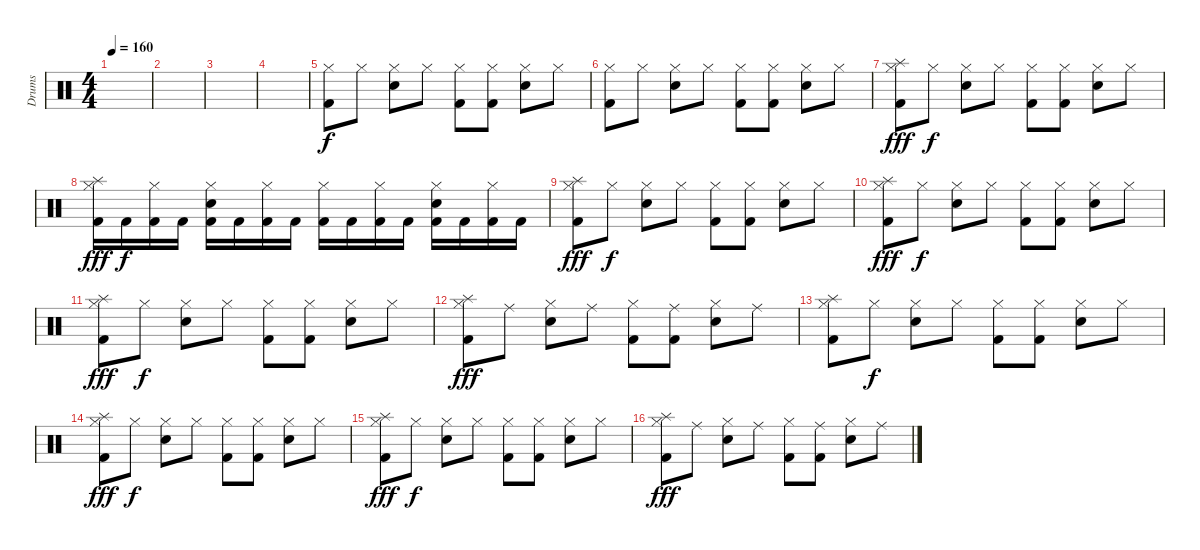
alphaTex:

\track ("Drums" "Drums") {instrument percussion}
\staff {score}
\articulation defaults
\ts (4 4)
\tempo 160
\clef neutral
\ks c
|
|
|
|
("Hi-Hat (closed)" "Kick (hit) 2").8 "Hi-Hat (closed)".8 ("Hi-Hat (closed)" "Snare (hit) 2").8 "Hi-Hat (closed)".8 ("Hi-Hat (closed)" "Kick (hit) 2").8 ("Hi-Hat (closed)" "Kick (hit) 2").8 ("Hi-Hat (closed)" "Snare (hit) 2").8 "Hi-Hat (closed)".8 |
("Hi-Hat (closed)" "Kick (hit) 2").8 "Hi-Hat (closed)".8 ("Hi-Hat (closed)" "Snare (hit) 2").8 "Hi-Hat (closed)".8 ("Hi-Hat (closed)" "Kick (hit) 2").8 ("Hi-Hat (closed)" "Kick (hit) 2").8 ("Hi-Hat (closed)" "Snare (hit) 2").8 "Hi-Hat (closed)".8 |
("Splash (hit)" "Hi-Hat (closed)" "Kick (hit) 2").8{dy fff} "Hi-Hat (closed)".8{dy f} ("Hi-Hat (closed)" "Snare (hit) 2").8 "Hi-Hat (closed)".8 ("Hi-Hat (closed)" "Kick (hit) 2").8 ("Hi-Hat (closed)" "Kick (hit) 2").8 ("Hi-Hat (closed)" "Snare (hit) 2").8 "Hi-Hat (closed)".8 |
("Splash (hit)" "Hi-Hat (closed)" "Kick (hit) 2").16{dy fff} "Kick (hit) 2".16{dy f} ("Hi-Hat (closed)" "Kick (hit) 2").16 "Kick (hit) 2".16 ("Hi-Hat (closed)" "Snare (hit) 2" "Kick (hit) 2").16 "Kick (hit) 2".16 ("Hi-Hat (closed)" "Kick (hit) 2").16 "Kick (hit) 2".16 ("Hi-Hat (closed)" "Kick (hit) 2").16 "Kick (hit) 2".16 ("Hi-Hat (closed)" "Kick (hit) 2").16 "Kick (hit) 2".16 ("Hi-Hat (closed)" "Snare (hit) 2" "Kick (hit) 2").16 "Kick (hit) 2".16 ("Hi-Hat (closed)" "Kick (hit) 2").16 "Kick (hit) 2".16 |
("Splash (hit)" "Hi-Hat (closed)" "Kick (hit) 2").8{dy fff} "Hi-Hat (closed)".8{dy f} ("Hi-Hat (closed)" "Snare (hit) 2").8 "Hi-Hat (closed)".8 ("Hi-Hat (closed)" "Kick (hit) 2").8 ("Hi-Hat (closed)" "Kick (hit) 2").8 ("Hi-Hat (closed)" "Snare (hit) 2").8 "Hi-Hat (closed)".8 |
("Splash (hit)" "Hi-Hat (closed)" "Kick (hit) 2").8{dy fff} "Hi-Hat (closed)".8{dy f} ("Hi-Hat (closed)" "Snare (hit) 2").8 "Hi-Hat (closed)".8 ("Hi-Hat (closed)" "Kick (hit) 2").8 ("Hi-Hat (closed)" "Kick (hit) 2").8 ("Hi-Hat (closed)" "Snare (hit) 2").8 "Hi-Hat (closed)".8 |
("Splash (hit)" "Hi-Hat (closed)" "Kick (hit) 2").8{dy fff} "Hi-Hat (closed)".8{dy f} ("Hi-Hat (closed)" "Snare (hit) 2").8 "Hi-Hat (closed)".8 ("Hi-Hat (closed)" "Kick (hit) 2").8 ("Hi-Hat (closed)" "Kick (hit) 2").8 ("Hi-Hat (closed)" "Snare (hit) 2").8 "Hi-Hat (closed)".8 |
("Splash (hit)" "Hi-Hat (closed)" "Kick (hit) 2").8{dy fff} "Ride (middle)".8 ("Hi-Hat (closed)" "Snare (hit) 2").8 "Ride (middle)".8 ("Hi-Hat (closed)" "Kick (hit) 2").8 ("Ride (middle)" "Kick (hit) 2").8 ("Hi-Hat (closed)" "Snare (hit) 2").8 "Ride (middle)".8 |
("Splash (hit)" "Hi-Hat (closed)" "Kick (hit) 2").8 "Hi-Hat (closed)".8{dy f} ("Hi-Hat (closed)" "Snare (hit) 2").8 "Hi-Hat (closed)".8 ("Hi-Hat (closed)" "Kick (hit) 2").8 ("Hi-Hat (closed)" "Kick (hit) 2").8 ("Hi-Hat (closed)" "Snare (hit) 2").8 "Hi-Hat (closed)".8 |
("Splash (hit)" "Hi-Hat (closed)" "Kick (hit) 2").8{dy fff} "Hi-Hat (closed)".8{dy f} ("Hi-Hat (closed)" "Snare (hit) 2").8 "Hi-Hat (closed)".8 ("Hi-Hat (closed)" "Kick (hit) 2").8 ("Hi-Hat (closed)" "Kick (hit) 2").8 ("Hi-Hat (closed)" "Snare (hit) 2").8 "Hi-Hat (closed)".8 |
("Splash (hit)" "Hi-Hat (closed)" "Kick (hit) 2").8{dy fff} "Hi-Hat (closed)".8{dy f} ("Hi-Hat (closed)" "Snare (hit) 2").8 "Hi-Hat (closed)".8 ("Hi-Hat (closed)" "Kick (hit) 2").8 ("Hi-Hat (closed)" "Kick (hit) 2").8 ("Hi-Hat (closed)" "Snare (hit) 2").8 "Hi-Hat (closed)".8 |
("Splash (hit)" "Hi-Hat (closed)" "Kick (hit) 2").8{dy fff} "Ride (middle)".8 ("Hi-Hat (closed)" "Snare (hit) 2").8 "Ride (middle)".8 ("Hi-Hat (closed)" "Kick (hit) 2").8 ("Ride (middle)" "Kick (hit) 2").8 ("Hi-Hat (closed)" "Snare (hit) 2").8 "Ride (middle)".8
